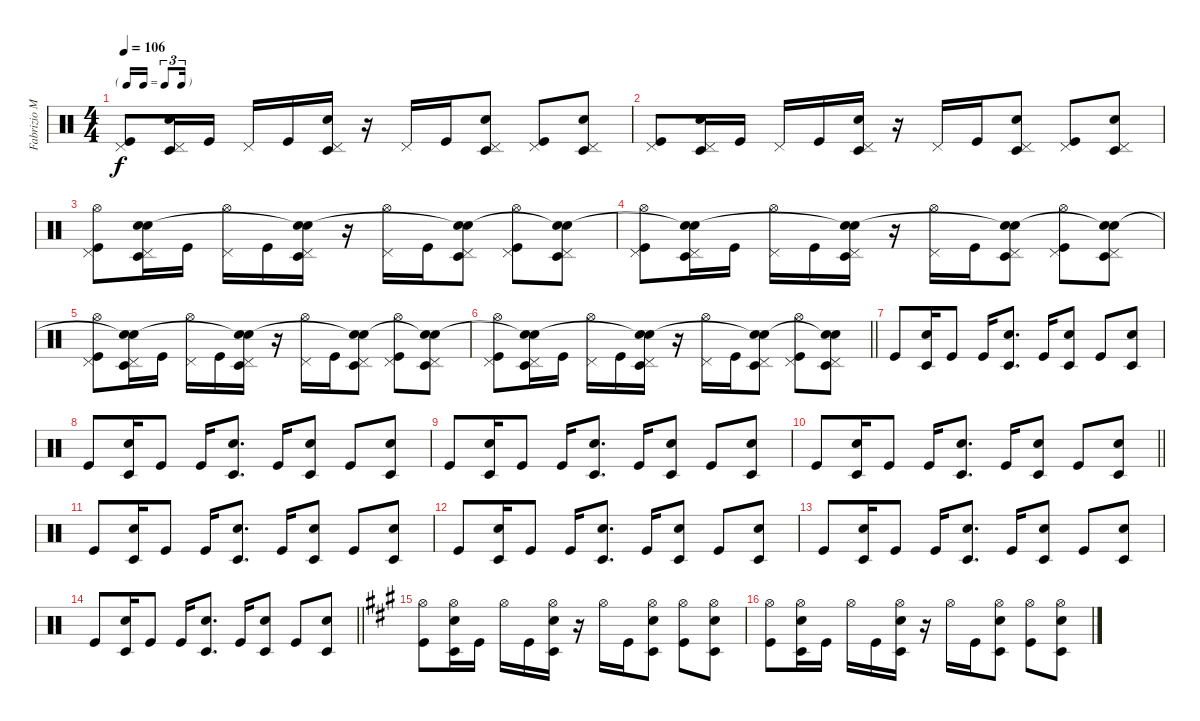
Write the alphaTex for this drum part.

\track ("Fabrizio Moretti" "Fabrizio M") {instrument percussion}
\staff {score}
\articulation defaults
\ts (4 4)
\tf triplet16th
\tempo 106
\clef neutral
\ks c
("Pedal Hi-Hat (hit)" "Kick (hit)").8{dy f} ("Pedal Hi-Hat (hit)" "Electric Snare (hit)" "Timbale low (hit)").16 "Kick (hit)".16 "Pedal Hi-Hat (hit)".16 "Kick (hit)".16 ("Pedal Hi-Hat (hit)" "Timbale low (hit)" "Electric Snare (hit)").16 r.16 "Pedal Hi-Hat (hit)".16 "Kick (hit)".16 ("Pedal Hi-Hat (hit)" "Electric Snare (hit)" "Timbale low (hit)").8 ("Pedal Hi-Hat (hit)" "Kick (hit)").8 ("Pedal Hi-Hat (hit)" "Electric Snare (hit)" "Timbale low (hit)").8 |
("Pedal Hi-Hat (hit)" "Kick (hit)").8 ("Pedal Hi-Hat (hit)" "Electric Snare (hit)" "Timbale low (hit)").16 "Kick (hit)".16 "Pedal Hi-Hat (hit)".16 "Kick (hit)".16 ("Pedal Hi-Hat (hit)" "Timbale low (hit)" "Electric Snare (hit)").16 r.16 "Pedal Hi-Hat (hit)".16 "Kick (hit)".16 ("Pedal Hi-Hat (hit)" "Electric Snare (hit)" "Timbale low (hit)").8 ("Pedal Hi-Hat (hit)" "Kick (hit)").8 ("Pedal Hi-Hat (hit)" "Electric Snare (hit)" "Timbale low (hit)").8 |
("Pedal Hi-Hat (hit)" "Hi-Hat (open)" "Kick (hit)").8 ("Pedal Hi-Hat (hit)" "Electric Snare (hit)" "Timbale low (hit)" "Snare (hit)"{t}).16 "Kick (hit)".16 ("Pedal Hi-Hat (hit)" "Hi-Hat (open)").16 "Kick (hit)".16 ("Pedal Hi-Hat (hit)" "Timbale low (hit)" "Electric Snare (hit)" "Snare (hit)"{t}).16 r.16 ("Pedal Hi-Hat (hit)" "Hi-Hat (open)").16 "Kick (hit)".16 ("Pedal Hi-Hat (hit)" "Electric Snare (hit)" "Timbale low (hit)" "Snare (hit)"{t}).8 ("Pedal Hi-Hat (hit)" "Hi-Hat (open)" "Kick (hit)").8 ("Pedal Hi-Hat (hit)" "Electric Snare (hit)" "Timbale low (hit)" "Snare (hit)"{t}).8 |
("Pedal Hi-Hat (hit)" "Hi-Hat (open)" "Kick (hit)").8 ("Pedal Hi-Hat (hit)" "Electric Snare (hit)" "Timbale low (hit)" "Snare (hit)"{t}).16 "Kick (hit)".16 ("Pedal Hi-Hat (hit)" "Hi-Hat (open)").16 "Kick (hit)".16 ("Pedal Hi-Hat (hit)" "Timbale low (hit)" "Electric Snare (hit)" "Snare (hit)"{t}).16 r.16 ("Pedal Hi-Hat (hit)" "Hi-Hat (open)").16 "Kick (hit)".16 ("Pedal Hi-Hat (hit)" "Electric Snare (hit)" "Timbale low (hit)" "Snare (hit)"{t}).8 ("Pedal Hi-Hat (hit)" "Hi-Hat (open)" "Kick (hit)").8 ("Pedal Hi-Hat (hit)" "Electric Snare (hit)" "Timbale low (hit)" "Snare (hit)"{t}).8 |
("Pedal Hi-Hat (hit)" "Hi-Hat (open)" "Kick (hit)").8 ("Pedal Hi-Hat (hit)" "Electric Snare (hit)" "Timbale low (hit)" "Snare (hit)"{t}).16 "Kick (hit)".16 ("Pedal Hi-Hat (hit)" "Hi-Hat (open)").16 "Kick (hit)".16 ("Pedal Hi-Hat (hit)" "Timbale low (hit)" "Electric Snare (hit)" "Snare (hit)"{t}).16 r.16 ("Pedal Hi-Hat (hit)" "Hi-Hat (open)").16 "Kick (hit)".16 ("Pedal Hi-Hat (hit)" "Electric Snare (hit)" "Timbale low (hit)" "Snare (hit)"{t}).8 ("Pedal Hi-Hat (hit)" "Hi-Hat (open)" "Kick (hit)").8 ("Pedal Hi-Hat (hit)" "Electric Snare (hit)" "Timbale low (hit)" "Snare (hit)"{t}).8 |
\barLineRight lightlight
("Pedal Hi-Hat (hit)" "Hi-Hat (open)" "Kick (hit)").8 ("Pedal Hi-Hat (hit)" "Electric Snare (hit)" "Timbale low (hit)" "Snare (hit)"{t}).16 "Kick (hit)".16 ("Pedal Hi-Hat (hit)" "Hi-Hat (open)").16 "Kick (hit)".16 ("Pedal Hi-Hat (hit)" "Timbale low (hit)" "Electric Snare (hit)" "Snare (hit)"{t}).16 r.16 ("Pedal Hi-Hat (hit)" "Hi-Hat (open)").16 "Kick (hit)".16 ("Pedal Hi-Hat (hit)" "Electric Snare (hit)" "Timbale low (hit)" "Snare (hit)"{t}).8 ("Pedal Hi-Hat (hit)" "Hi-Hat (open)" "Kick (hit)").8 ("Pedal Hi-Hat (hit)" "Electric Snare (hit)" "Timbale low (hit)" "Snare (hit)"{t}).8 |
"Kick (hit)".8 ("Electric Snare (hit)" "Timbale low (hit)").16 "Kick (hit)".8 "Kick (hit)".16 ("Electric Snare (hit)" "Timbale low (hit)").8{d} "Kick (hit)".16 ("Electric Snare (hit)" "Timbale low (hit)").8 "Kick (hit)".8 ("Electric Snare (hit)" "Timbale low (hit)").8 |
"Kick (hit)".8 ("Electric Snare (hit)" "Timbale low (hit)").16 "Kick (hit)".8 "Kick (hit)".16 ("Electric Snare (hit)" "Timbale low (hit)").8{d} "Kick (hit)".16 ("Electric Snare (hit)" "Timbale low (hit)").8 "Kick (hit)".8 ("Electric Snare (hit)" "Timbale low (hit)").8 |
"Kick (hit)".8 ("Electric Snare (hit)" "Timbale low (hit)").16 "Kick (hit)".8 "Kick (hit)".16 ("Electric Snare (hit)" "Timbale low (hit)").8{d} "Kick (hit)".16 ("Electric Snare (hit)" "Timbale low (hit)").8 "Kick (hit)".8 ("Electric Snare (hit)" "Timbale low (hit)").8 |
\barLineRight lightlight "Kick (hit)".8
("Electric Snare (hit)" "Timbale low (hit)").16 "Kick (hit)".8 "Kick (hit)".16 ("Electric Snare (hit)" "Timbale low (hit)").8{d} "Kick (hit)".16 ("Electric Snare (hit)" "Timbale low (hit)").8 "Kick (hit)".8 ("Electric Snare (hit)" "Timbale low (hit)").8 |
"Kick (hit)".8 ("Electric Snare (hit)" "Timbale low (hit)").16 "Kick (hit)".8 "Kick (hit)".16 ("Electric Snare (hit)" "Timbale low (hit)").8{d} "Kick (hit)".16 ("Electric Snare (hit)" "Timbale low (hit)").8 "Kick (hit)".8 ("Electric Snare (hit)" "Timbale low (hit)").8 |
"Kick (hit)".8 ("Electric Snare (hit)" "Timbale low (hit)").16 "Kick (hit)".8 "Kick (hit)".16 ("Electric Snare (hit)" "Timbale low (hit)").8{d} "Kick (hit)".16 ("Electric Snare (hit)" "Timbale low (hit)").8 "Kick (hit)".8 ("Electric Snare (hit)" "Timbale low (hit)").8 |
"Kick (hit)".8 ("Electric Snare (hit)" "Timbale low (hit)").16 "Kick (hit)".8 "Kick (hit)".16 ("Electric Snare (hit)" "Timbale low (hit)").8{d} "Kick (hit)".16 ("Electric Snare (hit)" "Timbale low (hit)").8 "Kick (hit)".8 ("Electric Snare (hit)" "Timbale low (hit)").8 |
\barLineRight lightlight "Kick (hit)".8
("Electric Snare (hit)" "Timbale low (hit)").16 "Kick (hit)".8 "Kick (hit)".16 ("Electric Snare (hit)" "Timbale low (hit)").8{d} "Kick (hit)".16 ("Electric Snare (hit)" "Timbale low (hit)").8 "Kick (hit)".8 ("Electric Snare (hit)" "Timbale low (hit)").8 |
\ks a
("Hi-Hat (open)" "Kick (hit)").8 ("Hi-Hat (open)" "Electric Snare (hit)" "Timbale low (hit)").16 "Kick (hit)".16 "Hi-Hat (open)".16 "Kick (hit)".16 ("Hi-Hat (open)" "Timbale low (hit)" "Electric Snare (hit)").16 r.16 "Hi-Hat (open)".16 "Kick (hit)".16 ("Hi-Hat (open)" "Electric Snare (hit)" "Timbale low (hit)").8 ("Hi-Hat (open)" "Kick (hit)").8 ("Hi-Hat (open)" "Electric Snare (hit)" "Timbale low (hit)").8 |
("Hi-Hat (open)" "Kick (hit)").8 ("Hi-Hat (open)" "Electric Snare (hit)" "Timbale low (hit)").16 "Kick (hit)".16 "Hi-Hat (open)".16 "Kick (hit)".16 ("Hi-Hat (open)" "Timbale low (hit)" "Electric Snare (hit)").16 r.16 "Hi-Hat (open)".16 "Kick (hit)".16 ("Hi-Hat (open)" "Electric Snare (hit)" "Timbale low (hit)").8 ("Hi-Hat (open)" "Kick (hit)").8 ("Hi-Hat (open)" "Electric Snare (hit)" "Timbale low (hit)").8
